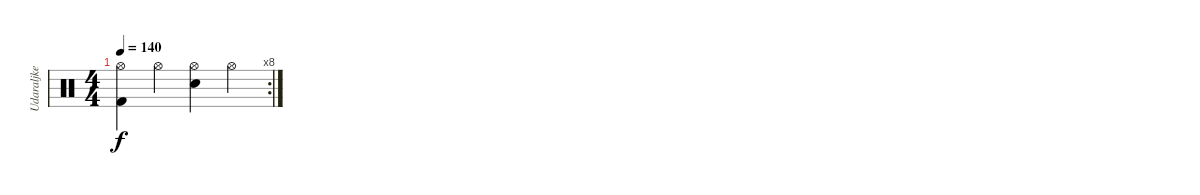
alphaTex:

\track ("Udaraljke" "Udaraljke") {instrument percussion}
\staff {score}
\articulation defaults
\rc 8
\ts (4 4)
\tempo 140
\clef neutral
\ks c
("Hi-Hat (open)" "Kick (hit) 2").4{dy f} "Hi-Hat (open)".4 ("Hi-Hat (open)" "Electric Snare (hit)").4 "Hi-Hat (open)".4
